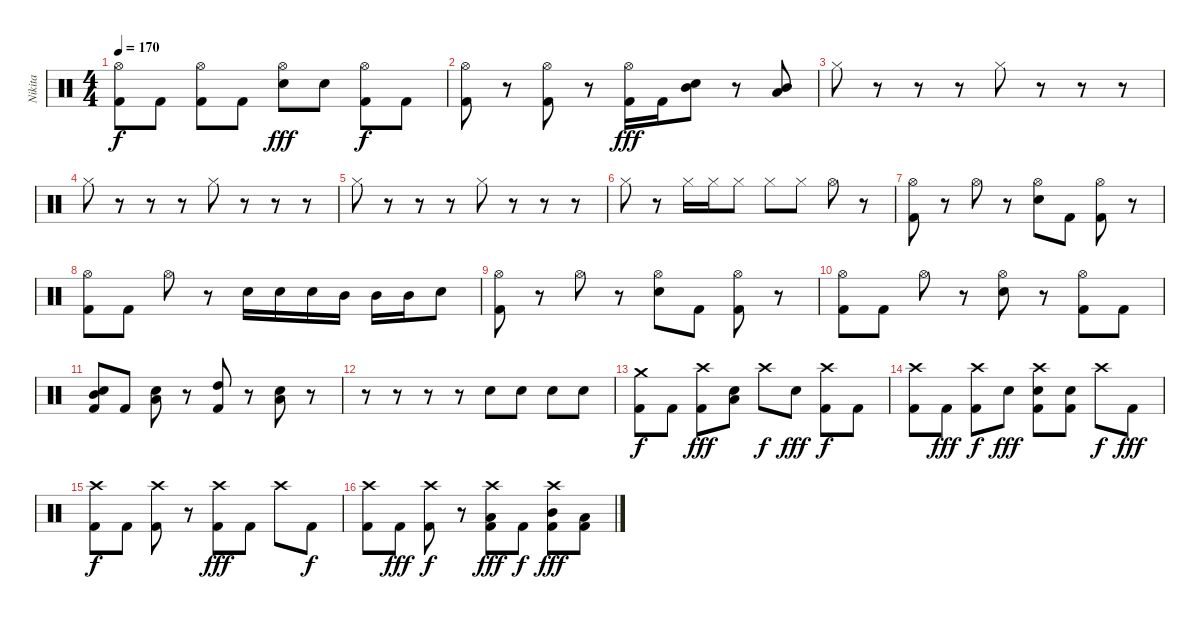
\track ("Nikita" "Nikita") {instrument percussion}
\staff {score}
\articulation defaults
\ts (4 4)
\tempo 170
\clef neutral
\ks c
("Hi-Hat (open)" "Kick (hit) 2").8{dy f} "Kick (hit) 2".8 ("Hi-Hat (open)" "Kick (hit) 2").8 "Kick (hit) 2".8 ("Hi-Hat (open)" "Electric Snare (hit)").8{dy fff} "Electric Snare (hit)".8 ("Hi-Hat (open)" "Kick (hit) 2").8{dy f} "Kick (hit) 2".8 |
("Hi-Hat (open)" "Kick (hit) 2").8 r.8 ("Hi-Hat (open)" "Kick (hit) 2").8 r.8 ("Hi-Hat (open)" "Kick (hit) 2").16{dy fff} "Kick (hit) 2".16 ("Mid Tom (hit)" "Electric Snare (hit)").8 r.8 ("Low Tom (hit)" "Mid Tom (hit)").8 |
"Hi-Hat (closed)".8 r.8 r.8 r.8 "Hi-Hat (closed)".8 r.8 r.8 r.8 |
"Hi-Hat (closed)".8 r.8 r.8 r.8 "Hi-Hat (closed)".8 r.8 r.8 r.8 |
"Hi-Hat (closed)".8 r.8 r.8 r.8 "Hi-Hat (closed)".8 r.8 r.8 r.8 |
"Hi-Hat (closed)".8 r.8 "Hi-Hat (closed)".16 "Hi-Hat (closed)".16 "Hi-Hat (closed)".8 "Hi-Hat (closed)".8 "Hi-Hat (closed)".8 "Hi-Hat (open)".8 r.8 |
("Hi-Hat (open)" "Kick (hit) 2").8 r.8 "Hi-Hat (open)".8 r.8 ("Hi-Hat (open)" "Electric Snare (hit)").8 "Kick (hit) 2".8 ("Hi-Hat (open)" "Kick (hit) 2").8 r.8 |
("Hi-Hat (open)" "Kick (hit) 2").8 "Kick (hit) 2".8 "Hi-Hat (open)".8 r.8 "Electric Snare (hit)".16 "Electric Snare (hit)".16 "Electric Snare (hit)".16 "Mid Tom (hit)".16 "Mid Tom (hit)".16 "Mid Tom (hit)".16 "Electric Snare (hit)".8 |
("Hi-Hat (open)" "Kick (hit) 2").8 r.8 "Hi-Hat (open)".8 r.8 ("Hi-Hat (open)" "Electric Snare (hit)").8 "Kick (hit) 2".8 ("Hi-Hat (open)" "Kick (hit) 2").8 r.8 |
("Hi-Hat (open)" "Kick (hit) 2").8 "Kick (hit) 2".8 "Hi-Hat (open)".8 r.8 ("Hi-Hat (open)" "Electric Snare (hit)").8 r.8 ("Hi-Hat (open)" "Kick (hit) 2").8 "Kick (hit) 2".8 |
("Mid Tom (hit)" "Electric Snare (hit)" "Kick (hit) 2").8 "Kick (hit) 2".8 ("Low Tom (hit)" "Electric Snare (hit)").8 r.8 ("High Tom (hit)" "Kick (hit) 2").8 r.8 ("Low Tom (hit)" "Electric Snare (hit)").8 r.8 |
r.8 r.8 r.8 r.8 "Electric Snare (hit)".8 "Electric Snare (hit)".8 "Electric Snare (hit)".8 "Electric Snare (hit)".8 |
("Crash medium (hit)" "Kick (hit) 2").8{dy f} "Kick (hit) 2".8 ("Crash high (hit)" "Kick (hit) 2").8{dy fff} ("Low Tom (hit)" "Electric Snare (hit)").8 "Crash high (hit)".8{dy f} "Electric Snare (hit)".8{dy fff} ("Crash high (hit)" "Kick (hit) 2").8{dy f} "Kick (hit) 2".8 |
("Crash high (hit)" "Kick (hit) 2").8 "Kick (hit) 2".8{dy fff} ("Crash high (hit)" "Kick (hit) 2").8{dy f} "Electric Snare (hit)".8{dy fff} ("Crash high (hit)" "Electric Snare (hit)" "Kick (hit) 2").8 ("Electric Snare (hit)" "Kick (hit) 2").8 "Crash high (hit)".8{dy f} "Kick (hit) 2".8{dy fff} |
("Crash high (hit)" "Kick (hit) 2").8{dy f} "Kick (hit) 2".8 ("Crash high (hit)" "Kick (hit) 2").8 r.8 ("Crash high (hit)" "Kick (hit) 2").8{dy fff} "Kick (hit) 2".8 "Crash high (hit)".8 "Kick (hit) 2".8{dy f} |
("Crash high (hit)" "Kick (hit) 2").8 "Kick (hit) 2".8{dy fff} ("Crash high (hit)" "Kick (hit) 2").8{dy f} r.8 ("Crash high (hit)" "Low Tom (hit)" "Kick (hit) 2").8{dy fff} "Kick (hit) 2".8{dy f} ("Crash high (hit)" "Mid Tom (hit)" "Kick (hit) 2").8{dy fff} ("Low Tom (hit)" "Kick (hit) 2").8
